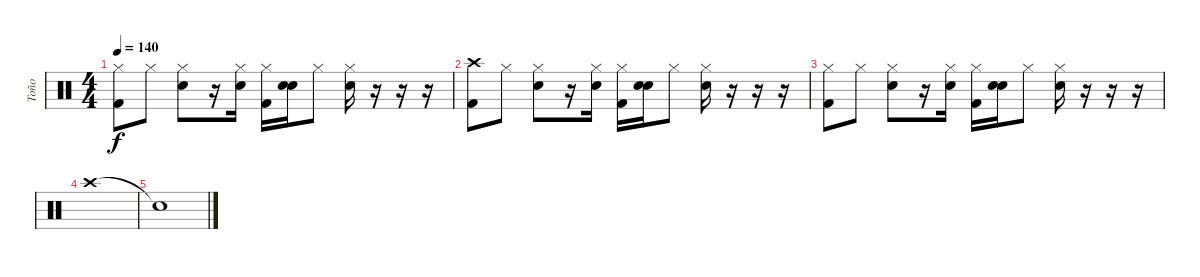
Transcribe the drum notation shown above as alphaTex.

\track ("Toño" "Toño") {instrument percussion}
\staff {score}
\articulation defaults
\ts (4 4)
\tempo 140
\clef neutral
\ks c
("Hi-Hat (closed)" "Kick (hit) 2").8{dy f} "Hi-Hat (closed)".8 ("Hi-Hat (closed)" "Electric Snare (hit)").8 r.16 ("Hi-Hat (closed)" "Electric Snare (hit)").16 ("Hi-Hat (closed)" "Kick (hit) 2").16 ("Electric Snare (hit)" "Electric Snare (hit)").16 "Hi-Hat (closed)".8 ("Hi-Hat (closed)" "Electric Snare (hit)").16 r.16 r.16 r.16 |
("Crash high (hit)" "Kick (hit) 2").8 "Hi-Hat (closed)".8 ("Hi-Hat (closed)" "Electric Snare (hit)").8 r.16 ("Hi-Hat (closed)" "Electric Snare (hit)").16 ("Hi-Hat (closed)" "Kick (hit) 2").16 ("Electric Snare (hit)" "Electric Snare (hit)").16 "Hi-Hat (closed)".8 ("Hi-Hat (closed)" "Electric Snare (hit)").16 r.16 r.16 r.16 |
("Hi-Hat (closed)" "Kick (hit) 2").8 "Hi-Hat (closed)".8 ("Hi-Hat (closed)" "Electric Snare (hit)").8 r.16 ("Hi-Hat (closed)" "Electric Snare (hit)").16 ("Hi-Hat (closed)" "Kick (hit) 2").16 ("Electric Snare (hit)" "Electric Snare (hit)").16 "Hi-Hat (closed)".8 ("Hi-Hat (closed)" "Electric Snare (hit)").16 r.16 r.16 r.16 |
"Crash high (hit)".1 |
"Snare (hit)"{t}.1
